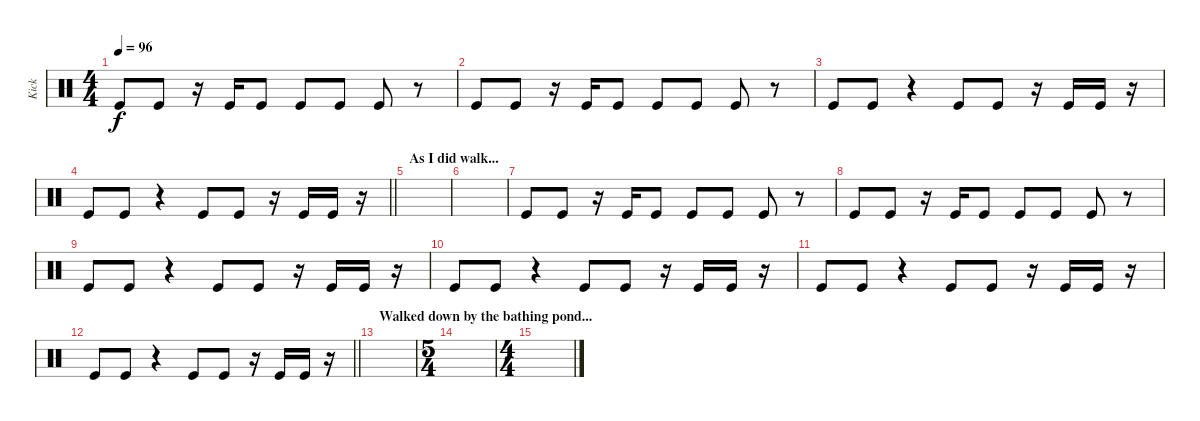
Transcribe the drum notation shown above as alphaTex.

\track ("Kick" "Kick") {instrument percussion}
\staff {score}
\articulation defaults
\ts (4 4)
\tempo 96
\clef neutral
\ks c "Kick (hit)".8{dy f} "Kick (hit)".8
r.16 "Kick (hit)".16 "Kick (hit)".8 "Kick (hit)".8 "Kick (hit)".8 "Kick (hit)".8 r.8 |
"Kick (hit)".8 "Kick (hit)".8 r.16 "Kick (hit)".16 "Kick (hit)".8 "Kick (hit)".8 "Kick (hit)".8 "Kick (hit)".8 r.8 |
"Kick (hit)".8 "Kick (hit)".8 r.4 "Kick (hit)".8 "Kick (hit)".8 r.16 "Kick (hit)".16 "Kick (hit)".16 r.16 |
\barLineRight lightlight "Kick (hit)".8 "Kick (hit)".8
r.4 "Kick (hit)".8 "Kick (hit)".8 r.16 "Kick (hit)".16 "Kick (hit)".16 r.16 |
\section ("" "As I did walk...")
|
|
"Kick (hit)".8 "Kick (hit)".8 r.16 "Kick (hit)".16 "Kick (hit)".8 "Kick (hit)".8 "Kick (hit)".8 "Kick (hit)".8 r.8 |
"Kick (hit)".8 "Kick (hit)".8 r.16 "Kick (hit)".16 "Kick (hit)".8 "Kick (hit)".8 "Kick (hit)".8 "Kick (hit)".8 r.8 |
"Kick (hit)".8 "Kick (hit)".8 r.4 "Kick (hit)".8 "Kick (hit)".8 r.16 "Kick (hit)".16 "Kick (hit)".16 r.16 |
"Kick (hit)".8 "Kick (hit)".8 r.4 "Kick (hit)".8 "Kick (hit)".8 r.16 "Kick (hit)".16 "Kick (hit)".16 r.16 |
"Kick (hit)".8 "Kick (hit)".8 r.4 "Kick (hit)".8 "Kick (hit)".8 r.16 "Kick (hit)".16 "Kick (hit)".16 r.16 |
\barLineRight lightlight "Kick (hit)".8 "Kick (hit)".8
r.4 "Kick (hit)".8 "Kick (hit)".8 r.16 "Kick (hit)".16 "Kick (hit)".16 r.16 |
\section ("" "Walked down by the bathing pond...")
|
\ts (5 4)
|
\ts (4 4)
